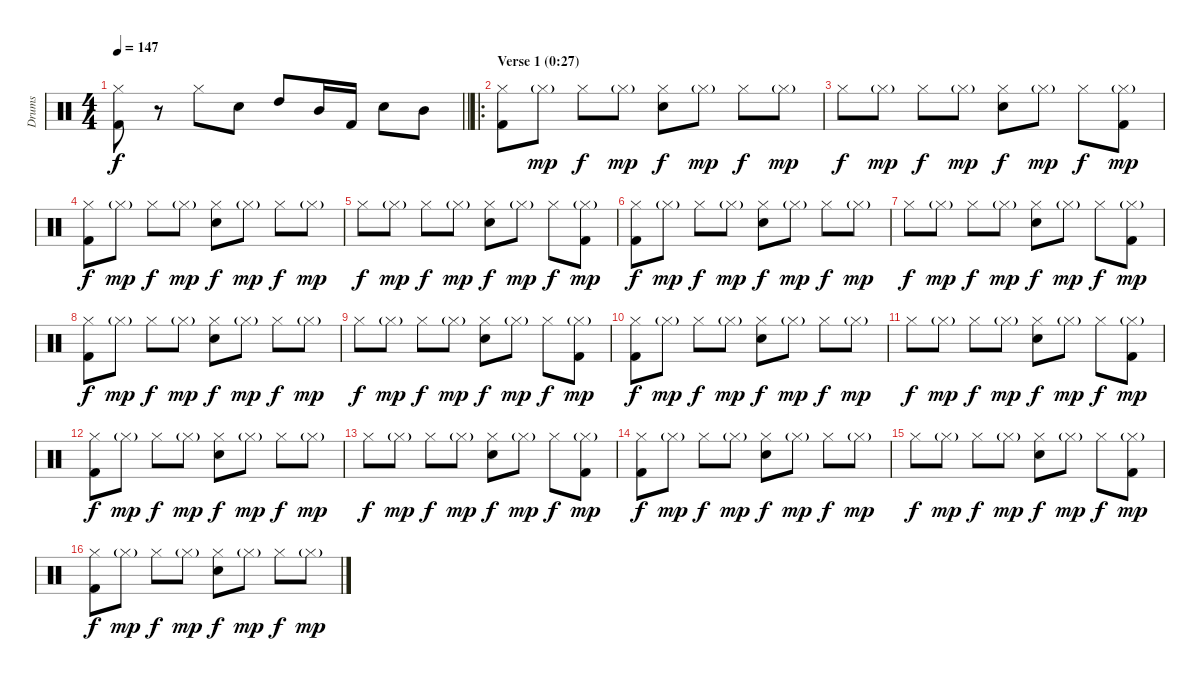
\track ("Drums" "Drums") {instrument percussion}
\staff {score}
\articulation defaults
\ts (4 4)
\tempo 147
\clef neutral
\barLineRight lightlight
\ks c
("Hi-Hat (closed)" "Kick (hit) 2").8{dy f} r.8 "Hi-Hat (closed)".8 "Snare (hit) 2".8 "High Tom (hit)".8 "Mid Tom (hit)".16 "Kick (hit) 2".16 "Snare (hit) 2".8 "Mid Tom (hit)".8 |
\ro
\section ("" "Verse 1 (0:27)")
("Hi-Hat (closed)" "Kick (hit) 2").8 "Hi-Hat (closed)"{g}.8{dy mp} "Hi-Hat (closed)".8{dy f} "Hi-Hat (closed)"{g}.8{dy mp} ("Hi-Hat (closed)" "Snare (hit) 2").8{dy f} "Hi-Hat (closed)"{g}.8{dy mp} "Hi-Hat (closed)".8{dy f} "Hi-Hat (closed)"{g}.8{dy mp} |
"Hi-Hat (closed)".8{dy f} "Hi-Hat (closed)"{g}.8{dy mp} "Hi-Hat (closed)".8{dy f} "Hi-Hat (closed)"{g}.8{dy mp} ("Hi-Hat (closed)" "Snare (hit) 2").8{dy f} "Hi-Hat (closed)"{g}.8{dy mp} "Hi-Hat (closed)".8{dy f} ("Hi-Hat (closed)"{g} "Kick (hit) 2").8{dy mp} |
("Hi-Hat (closed)" "Kick (hit) 2").8{dy f} "Hi-Hat (closed)"{g}.8{dy mp} "Hi-Hat (closed)".8{dy f} "Hi-Hat (closed)"{g}.8{dy mp} ("Hi-Hat (closed)" "Snare (hit) 2").8{dy f} "Hi-Hat (closed)"{g}.8{dy mp} "Hi-Hat (closed)".8{dy f} "Hi-Hat (closed)"{g}.8{dy mp} |
"Hi-Hat (closed)".8{dy f} "Hi-Hat (closed)"{g}.8{dy mp} "Hi-Hat (closed)".8{dy f} "Hi-Hat (closed)"{g}.8{dy mp} ("Hi-Hat (closed)" "Snare (hit) 2").8{dy f} "Hi-Hat (closed)"{g}.8{dy mp} "Hi-Hat (closed)".8{dy f} ("Hi-Hat (closed)"{g} "Kick (hit) 2").8{dy mp} |
("Hi-Hat (closed)" "Kick (hit) 2").8{dy f} "Hi-Hat (closed)"{g}.8{dy mp} "Hi-Hat (closed)".8{dy f} "Hi-Hat (closed)"{g}.8{dy mp} ("Hi-Hat (closed)" "Snare (hit) 2").8{dy f} "Hi-Hat (closed)"{g}.8{dy mp} "Hi-Hat (closed)".8{dy f} "Hi-Hat (closed)"{g}.8{dy mp} |
"Hi-Hat (closed)".8{dy f} "Hi-Hat (closed)"{g}.8{dy mp} "Hi-Hat (closed)".8{dy f} "Hi-Hat (closed)"{g}.8{dy mp} ("Hi-Hat (closed)" "Snare (hit) 2").8{dy f} "Hi-Hat (closed)"{g}.8{dy mp} "Hi-Hat (closed)".8{dy f} ("Hi-Hat (closed)"{g} "Kick (hit) 2").8{dy mp} |
("Hi-Hat (closed)" "Kick (hit) 2").8{dy f} "Hi-Hat (closed)"{g}.8{dy mp} "Hi-Hat (closed)".8{dy f} "Hi-Hat (closed)"{g}.8{dy mp} ("Hi-Hat (closed)" "Snare (hit) 2").8{dy f} "Hi-Hat (closed)"{g}.8{dy mp} "Hi-Hat (closed)".8{dy f} "Hi-Hat (closed)"{g}.8{dy mp} |
"Hi-Hat (closed)".8{dy f} "Hi-Hat (closed)"{g}.8{dy mp} "Hi-Hat (closed)".8{dy f} "Hi-Hat (closed)"{g}.8{dy mp} ("Hi-Hat (closed)" "Snare (hit) 2").8{dy f} "Hi-Hat (closed)"{g}.8{dy mp} "Hi-Hat (closed)".8{dy f} ("Hi-Hat (closed)"{g} "Kick (hit) 2").8{dy mp} |
("Hi-Hat (closed)" "Kick (hit) 2").8{dy f} "Hi-Hat (closed)"{g}.8{dy mp} "Hi-Hat (closed)".8{dy f} "Hi-Hat (closed)"{g}.8{dy mp} ("Hi-Hat (closed)" "Snare (hit) 2").8{dy f} "Hi-Hat (closed)"{g}.8{dy mp} "Hi-Hat (closed)".8{dy f} "Hi-Hat (closed)"{g}.8{dy mp} |
"Hi-Hat (closed)".8{dy f} "Hi-Hat (closed)"{g}.8{dy mp} "Hi-Hat (closed)".8{dy f} "Hi-Hat (closed)"{g}.8{dy mp} ("Hi-Hat (closed)" "Snare (hit) 2").8{dy f} "Hi-Hat (closed)"{g}.8{dy mp} "Hi-Hat (closed)".8{dy f} ("Hi-Hat (closed)"{g} "Kick (hit) 2").8{dy mp} |
("Hi-Hat (closed)" "Kick (hit) 2").8{dy f} "Hi-Hat (closed)"{g}.8{dy mp} "Hi-Hat (closed)".8{dy f} "Hi-Hat (closed)"{g}.8{dy mp} ("Hi-Hat (closed)" "Snare (hit) 2").8{dy f} "Hi-Hat (closed)"{g}.8{dy mp} "Hi-Hat (closed)".8{dy f} "Hi-Hat (closed)"{g}.8{dy mp} |
"Hi-Hat (closed)".8{dy f} "Hi-Hat (closed)"{g}.8{dy mp} "Hi-Hat (closed)".8{dy f} "Hi-Hat (closed)"{g}.8{dy mp} ("Hi-Hat (closed)" "Snare (hit) 2").8{dy f} "Hi-Hat (closed)"{g}.8{dy mp} "Hi-Hat (closed)".8{dy f} ("Hi-Hat (closed)"{g} "Kick (hit) 2").8{dy mp} |
("Hi-Hat (closed)" "Kick (hit) 2").8{dy f} "Hi-Hat (closed)"{g}.8{dy mp} "Hi-Hat (closed)".8{dy f} "Hi-Hat (closed)"{g}.8{dy mp} ("Hi-Hat (closed)" "Snare (hit) 2").8{dy f} "Hi-Hat (closed)"{g}.8{dy mp} "Hi-Hat (closed)".8{dy f} "Hi-Hat (closed)"{g}.8{dy mp} |
"Hi-Hat (closed)".8{dy f} "Hi-Hat (closed)"{g}.8{dy mp} "Hi-Hat (closed)".8{dy f} "Hi-Hat (closed)"{g}.8{dy mp} ("Hi-Hat (closed)" "Snare (hit) 2").8{dy f} "Hi-Hat (closed)"{g}.8{dy mp} "Hi-Hat (closed)".8{dy f} ("Hi-Hat (closed)"{g} "Kick (hit) 2").8{dy mp} |
("Hi-Hat (closed)" "Kick (hit) 2").8{dy f} "Hi-Hat (closed)"{g}.8{dy mp} "Hi-Hat (closed)".8{dy f} "Hi-Hat (closed)"{g}.8{dy mp} ("Hi-Hat (closed)" "Snare (hit) 2").8{dy f} "Hi-Hat (closed)"{g}.8{dy mp} "Hi-Hat (closed)".8{dy f} "Hi-Hat (closed)"{g}.8{dy mp}
